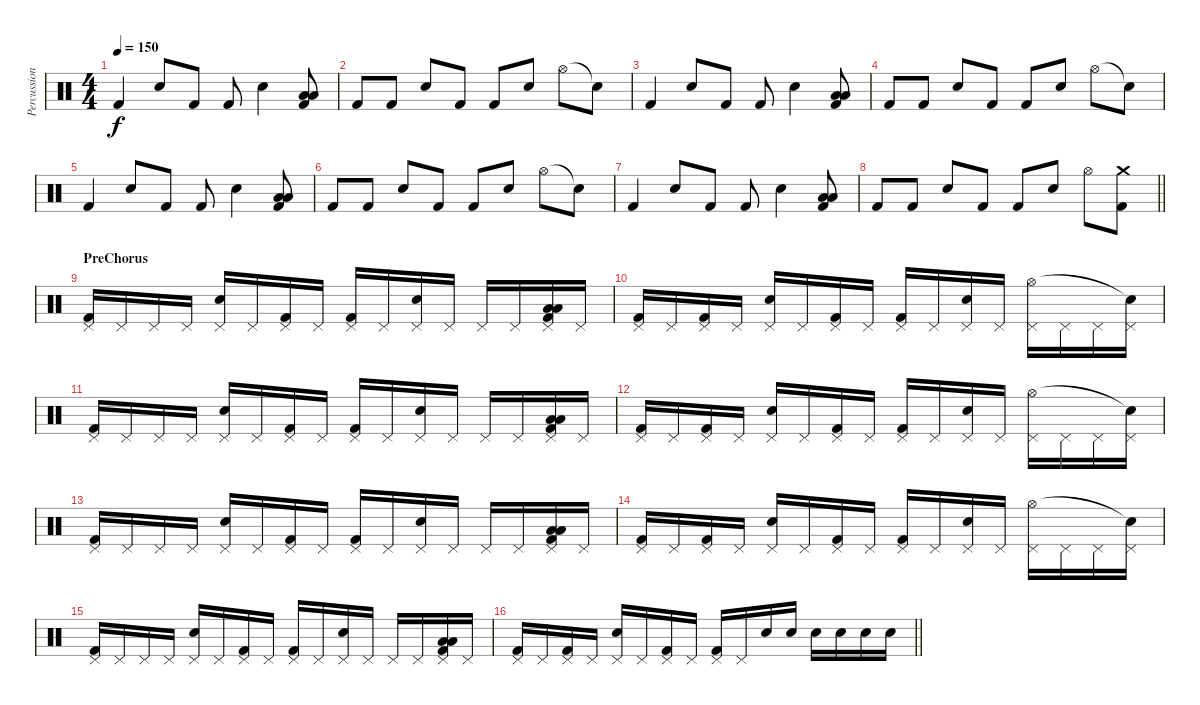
\track ("Percussion" "Percussion") {instrument percussion}
\staff {score}
\articulation defaults
\ts (4 4)
\tempo 150
\clef neutral
\ks c "Kick (hit) 2".4{dy f} "Electric Snare (hit)".8 "Kick (hit) 2".8 "Kick (hit) 2".8 "Electric Snare (hit)".4
("Kick (hit) 2" "Low Tom (hit)" "Low Floor Tom (hit)").8 |
"Kick (hit) 2".8 "Kick (hit) 2".8 "Electric Snare (hit)".8 "Kick (hit) 2".8 "Kick (hit) 2".8 "Electric Snare (hit)".8 "Hi-Hat (open)".8 "Snare (hit)"{t}.8 |
"Kick (hit) 2".4 "Electric Snare (hit)".8 "Kick (hit) 2".8 "Kick (hit) 2".8 "Electric Snare (hit)".4 ("Kick (hit) 2" "Low Tom (hit)" "Low Floor Tom (hit)").8 |
"Kick (hit) 2".8 "Kick (hit) 2".8 "Electric Snare (hit)".8 "Kick (hit) 2".8 "Kick (hit) 2".8 "Electric Snare (hit)".8 "Hi-Hat (open)".8 "Snare (hit)"{t}.8 |
"Kick (hit) 2".4 "Electric Snare (hit)".8 "Kick (hit) 2".8 "Kick (hit) 2".8 "Electric Snare (hit)".4 ("Kick (hit) 2" "Low Tom (hit)" "Low Floor Tom (hit)").8 |
"Kick (hit) 2".8 "Kick (hit) 2".8 "Electric Snare (hit)".8 "Kick (hit) 2".8 "Kick (hit) 2".8 "Electric Snare (hit)".8 "Hi-Hat (open)".8 "Snare (hit)"{t}.8 |
"Kick (hit) 2".4 "Electric Snare (hit)".8 "Kick (hit) 2".8 "Kick (hit) 2".8 "Electric Snare (hit)".4 ("Kick (hit) 2" "Low Tom (hit)" "Low Floor Tom (hit)").8 |
\barLineRight lightlight "Kick (hit) 2".8 "Kick (hit) 2".8 "Electric Snare (hit)".8 "Kick (hit) 2".8 "Kick (hit) 2".8 "Electric Snare (hit)".8 "Hi-Hat (open)".8
("Crash medium (hit)" "Kick (hit) 2").8 |
\section ("" "PreChorus")
("Pedal Hi-Hat (hit)" "Kick (hit) 2").16 "Pedal Hi-Hat (hit)".16 "Pedal Hi-Hat (hit)".16 "Pedal Hi-Hat (hit)".16 ("Pedal Hi-Hat (hit)" "Electric Snare (hit)").16 "Pedal Hi-Hat (hit)".16 ("Pedal Hi-Hat (hit)" "Kick (hit) 2").16 "Pedal Hi-Hat (hit)".16 ("Pedal Hi-Hat (hit)" "Kick (hit) 2").16 "Pedal Hi-Hat (hit)".16 ("Pedal Hi-Hat (hit)" "Electric Snare (hit)").16 "Pedal Hi-Hat (hit)".16 "Pedal Hi-Hat (hit)".16 "Pedal Hi-Hat (hit)".16 ("Pedal Hi-Hat (hit)" "Kick (hit) 2" "Low Tom (hit)" "Low Floor Tom (hit)").16 "Pedal Hi-Hat (hit)".16 |
("Pedal Hi-Hat (hit)" "Kick (hit) 2").16 "Pedal Hi-Hat (hit)".16 ("Pedal Hi-Hat (hit)" "Kick (hit) 2").16 "Pedal Hi-Hat (hit)".16 ("Pedal Hi-Hat (hit)" "Electric Snare (hit)").16 "Pedal Hi-Hat (hit)".16 ("Pedal Hi-Hat (hit)" "Kick (hit) 2").16 "Pedal Hi-Hat (hit)".16 ("Pedal Hi-Hat (hit)" "Kick (hit) 2").16 "Pedal Hi-Hat (hit)".16 ("Pedal Hi-Hat (hit)" "Electric Snare (hit)").16 "Pedal Hi-Hat (hit)".16 ("Pedal Hi-Hat (hit)" "Hi-Hat (open)").16 "Pedal Hi-Hat (hit)".16 "Pedal Hi-Hat (hit)".16 ("Pedal Hi-Hat (hit)" "Snare (hit)"{t}).16 |
("Pedal Hi-Hat (hit)" "Kick (hit) 2").16 "Pedal Hi-Hat (hit)".16 "Pedal Hi-Hat (hit)".16 "Pedal Hi-Hat (hit)".16 ("Pedal Hi-Hat (hit)" "Electric Snare (hit)").16 "Pedal Hi-Hat (hit)".16 ("Pedal Hi-Hat (hit)" "Kick (hit) 2").16 "Pedal Hi-Hat (hit)".16 ("Pedal Hi-Hat (hit)" "Kick (hit) 2").16 "Pedal Hi-Hat (hit)".16 ("Pedal Hi-Hat (hit)" "Electric Snare (hit)").16 "Pedal Hi-Hat (hit)".16 "Pedal Hi-Hat (hit)".16 "Pedal Hi-Hat (hit)".16 ("Pedal Hi-Hat (hit)" "Kick (hit) 2" "Low Tom (hit)" "Low Floor Tom (hit)").16 "Pedal Hi-Hat (hit)".16 |
("Pedal Hi-Hat (hit)" "Kick (hit) 2").16 "Pedal Hi-Hat (hit)".16 ("Pedal Hi-Hat (hit)" "Kick (hit) 2").16 "Pedal Hi-Hat (hit)".16 ("Pedal Hi-Hat (hit)" "Electric Snare (hit)").16 "Pedal Hi-Hat (hit)".16 ("Pedal Hi-Hat (hit)" "Kick (hit) 2").16 "Pedal Hi-Hat (hit)".16 ("Pedal Hi-Hat (hit)" "Kick (hit) 2").16 "Pedal Hi-Hat (hit)".16 ("Pedal Hi-Hat (hit)" "Electric Snare (hit)").16 "Pedal Hi-Hat (hit)".16 ("Pedal Hi-Hat (hit)" "Hi-Hat (open)").16 "Pedal Hi-Hat (hit)".16 "Pedal Hi-Hat (hit)".16 ("Pedal Hi-Hat (hit)" "Snare (hit)"{t}).16 |
("Pedal Hi-Hat (hit)" "Kick (hit) 2").16 "Pedal Hi-Hat (hit)".16 "Pedal Hi-Hat (hit)".16 "Pedal Hi-Hat (hit)".16 ("Pedal Hi-Hat (hit)" "Electric Snare (hit)").16 "Pedal Hi-Hat (hit)".16 ("Pedal Hi-Hat (hit)" "Kick (hit) 2").16 "Pedal Hi-Hat (hit)".16 ("Pedal Hi-Hat (hit)" "Kick (hit) 2").16 "Pedal Hi-Hat (hit)".16 ("Pedal Hi-Hat (hit)" "Electric Snare (hit)").16 "Pedal Hi-Hat (hit)".16 "Pedal Hi-Hat (hit)".16 "Pedal Hi-Hat (hit)".16 ("Pedal Hi-Hat (hit)" "Kick (hit) 2" "Low Tom (hit)" "Low Floor Tom (hit)").16 "Pedal Hi-Hat (hit)".16 |
("Pedal Hi-Hat (hit)" "Kick (hit) 2").16 "Pedal Hi-Hat (hit)".16 ("Pedal Hi-Hat (hit)" "Kick (hit) 2").16 "Pedal Hi-Hat (hit)".16 ("Pedal Hi-Hat (hit)" "Electric Snare (hit)").16 "Pedal Hi-Hat (hit)".16 ("Pedal Hi-Hat (hit)" "Kick (hit) 2").16 "Pedal Hi-Hat (hit)".16 ("Pedal Hi-Hat (hit)" "Kick (hit) 2").16 "Pedal Hi-Hat (hit)".16 ("Pedal Hi-Hat (hit)" "Electric Snare (hit)").16 "Pedal Hi-Hat (hit)".16 ("Pedal Hi-Hat (hit)" "Hi-Hat (open)").16 "Pedal Hi-Hat (hit)".16 "Pedal Hi-Hat (hit)".16 ("Pedal Hi-Hat (hit)" "Snare (hit)"{t}).16 |
("Pedal Hi-Hat (hit)" "Kick (hit) 2").16 "Pedal Hi-Hat (hit)".16 "Pedal Hi-Hat (hit)".16 "Pedal Hi-Hat (hit)".16 ("Pedal Hi-Hat (hit)" "Electric Snare (hit)").16 "Pedal Hi-Hat (hit)".16 ("Pedal Hi-Hat (hit)" "Kick (hit) 2").16 "Pedal Hi-Hat (hit)".16 ("Pedal Hi-Hat (hit)" "Kick (hit) 2").16 "Pedal Hi-Hat (hit)".16 ("Pedal Hi-Hat (hit)" "Electric Snare (hit)").16 "Pedal Hi-Hat (hit)".16 "Pedal Hi-Hat (hit)".16 "Pedal Hi-Hat (hit)".16 ("Pedal Hi-Hat (hit)" "Kick (hit) 2" "Low Tom (hit)" "Low Floor Tom (hit)").16 "Pedal Hi-Hat (hit)".16 |
\barLineRight lightlight
("Pedal Hi-Hat (hit)" "Kick (hit) 2").16 "Pedal Hi-Hat (hit)".16 ("Pedal Hi-Hat (hit)" "Kick (hit) 2").16 "Pedal Hi-Hat (hit)".16 ("Pedal Hi-Hat (hit)" "Electric Snare (hit)").16 "Pedal Hi-Hat (hit)".16 ("Pedal Hi-Hat (hit)" "Kick (hit) 2").16 "Pedal Hi-Hat (hit)".16 ("Pedal Hi-Hat (hit)" "Kick (hit) 2").16 "Pedal Hi-Hat (hit)".16 "Electric Snare (hit)".16 "Electric Snare (hit)".16 "Electric Snare (hit)".16 "Electric Snare (hit)".16 "Electric Snare (hit)".16 "Electric Snare (hit)".16
